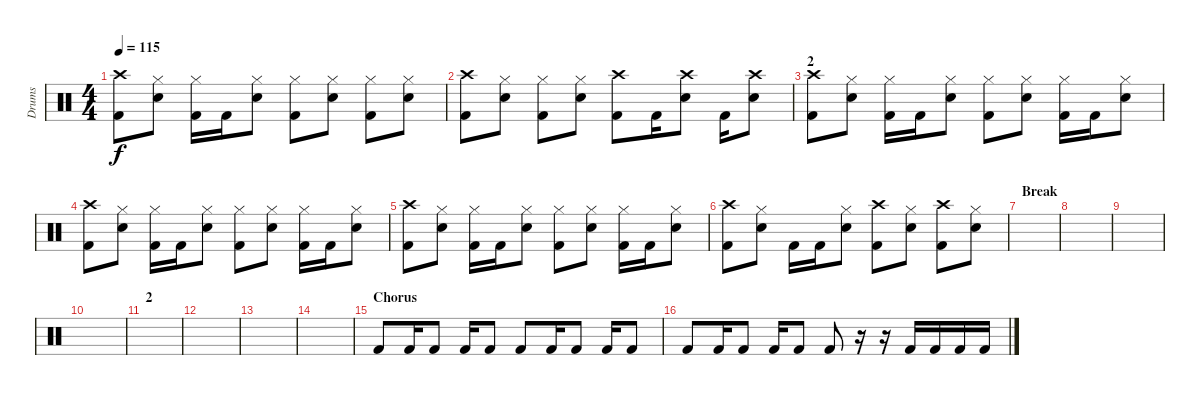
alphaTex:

\track ("Drums" "Drums") {instrument percussion}
\staff {score}
\articulation defaults
\ts (4 4)
\tempo 115
\clef neutral
\ks c
("Crash high (hit)" "Kick (hit) 2").8{dy f} ("Hi-Hat (closed)" "Snare (hit) 2").8 ("Hi-Hat (closed)" "Kick (hit) 2").16 "Kick (hit) 2".16 ("Hi-Hat (closed)" "Snare (hit) 2").8 ("Hi-Hat (closed)" "Kick (hit) 2").8 ("Hi-Hat (closed)" "Snare (hit) 2").8 ("Hi-Hat (closed)" "Kick (hit) 2").8 ("Hi-Hat (closed)" "Snare (hit) 2").8 |
("Crash high (hit)" "Kick (hit) 2").8 ("Hi-Hat (closed)" "Snare (hit) 2").8 ("Hi-Hat (closed)" "Kick (hit) 2").8 ("Hi-Hat (closed)" "Snare (hit) 2").8 ("Crash high (hit)" "Kick (hit) 2").8 "Kick (hit) 2".16 ("Crash high (hit)" "Snare (hit) 2").8 "Kick (hit) 2".16 ("Crash high (hit)" "Snare (hit) 2").8 |
\section ("" "2")
("Crash high (hit)" "Kick (hit) 2").8 ("Hi-Hat (closed)" "Snare (hit) 2").8 ("Hi-Hat (closed)" "Kick (hit) 2").16 "Kick (hit) 2".16 ("Hi-Hat (closed)" "Snare (hit) 2").8 ("Hi-Hat (closed)" "Kick (hit) 2").8 ("Hi-Hat (closed)" "Snare (hit) 2").8 ("Hi-Hat (closed)" "Kick (hit) 2").16 "Kick (hit) 2".16 ("Hi-Hat (closed)" "Snare (hit) 2").8 |
("Crash high (hit)" "Kick (hit) 2").8 ("Hi-Hat (closed)" "Snare (hit) 2").8 ("Hi-Hat (closed)" "Kick (hit) 2").16 "Kick (hit) 2".16 ("Hi-Hat (closed)" "Snare (hit) 2").8 ("Hi-Hat (closed)" "Kick (hit) 2").8 ("Hi-Hat (closed)" "Snare (hit) 2").8 ("Hi-Hat (closed)" "Kick (hit) 2").16 "Kick (hit) 2".16 ("Hi-Hat (closed)" "Snare (hit) 2").8 |
("Crash high (hit)" "Kick (hit) 2").8 ("Hi-Hat (closed)" "Snare (hit) 2").8 ("Hi-Hat (closed)" "Kick (hit) 2").16 "Kick (hit) 2".16 ("Hi-Hat (closed)" "Snare (hit) 2").8 ("Hi-Hat (closed)" "Kick (hit) 2").8 ("Hi-Hat (closed)" "Snare (hit) 2").8 ("Hi-Hat (closed)" "Kick (hit) 2").16 "Kick (hit) 2".16 ("Hi-Hat (closed)" "Snare (hit) 2").8 |
("Crash high (hit)" "Kick (hit) 2").8 ("Hi-Hat (closed)" "Snare (hit) 2").8 "Kick (hit) 2".16 "Kick (hit) 2".16 ("Hi-Hat (closed)" "Snare (hit) 2").8 ("Crash high (hit)" "Kick (hit) 2").8 ("Hi-Hat (closed)" "Snare (hit) 2").8 ("Crash high (hit)" "Kick (hit) 2").8 ("Hi-Hat (closed)" "Snare (hit) 2").8 |
\section ("" "Break")
|
|
|
|
\section ("" "2")
|
|
|
|
\section ("" "Chorus")
"Kick (hit) 2".8 "Kick (hit) 2".16 "Kick (hit) 2".8 "Kick (hit) 2".16 "Kick (hit) 2".8 "Kick (hit) 2".8 "Kick (hit) 2".16 "Kick (hit) 2".8 "Kick (hit) 2".16 "Kick (hit) 2".8 |
"Kick (hit) 2".8 "Kick (hit) 2".16 "Kick (hit) 2".8 "Kick (hit) 2".16 "Kick (hit) 2".8 "Kick (hit) 2".8 r.16 r.16 "Kick (hit) 2".16 "Kick (hit) 2".16 "Kick (hit) 2".16 "Kick (hit) 2".16
